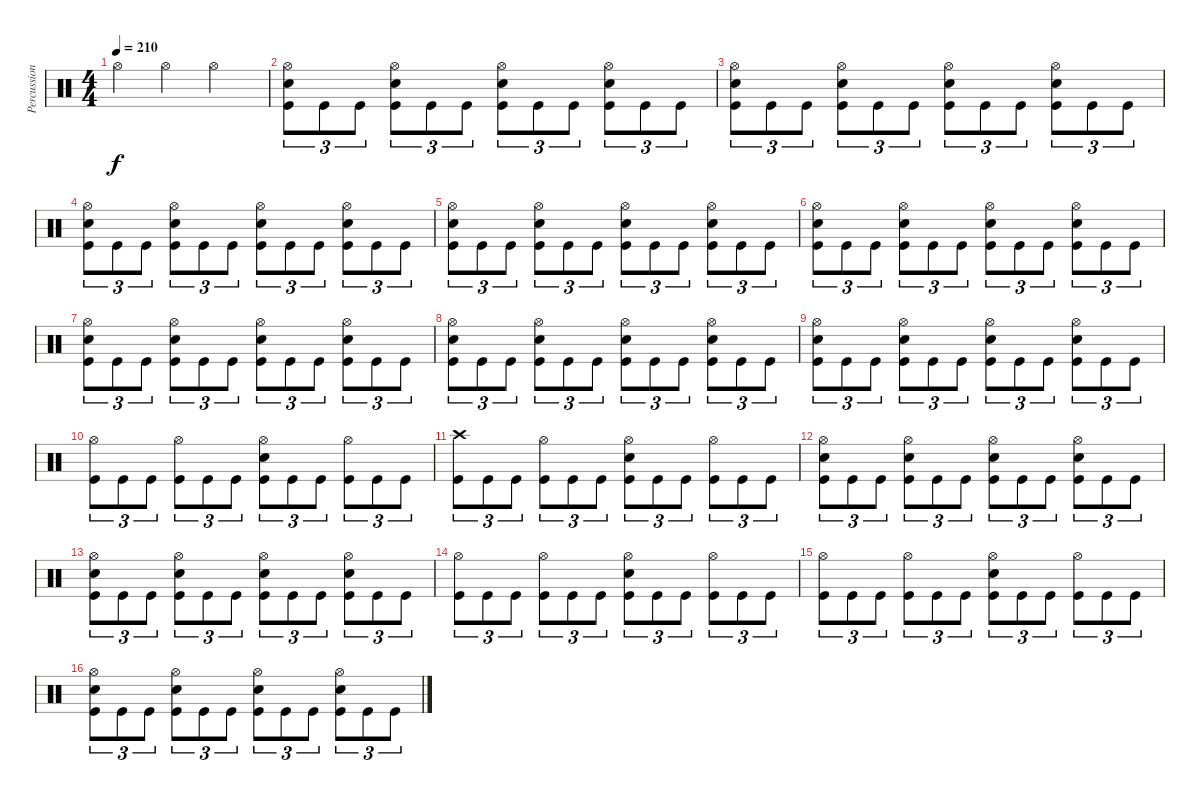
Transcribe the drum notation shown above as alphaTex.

\track ("Percussion" "Percussion") {instrument percussion}
\staff {score}
\articulation defaults
\ts (4 4)
\tempo 210
\clef neutral
\ks c "Hi-Hat (open)".4{dy f} "Hi-Hat (open)".4 "Hi-Hat (open)".2
|
("Snare (hit) 2" "Hi-Hat (open)" "Kick (hit)").8{tu (3 2)} "Kick (hit)".8{tu (3 2)} "Kick (hit)".8{tu (3 2)} ("Snare (hit) 2" "Hi-Hat (open)" "Kick (hit)").8{tu (3 2)} "Kick (hit)".8{tu (3 2)} "Kick (hit)".8{tu (3 2)} ("Snare (hit) 2" "Hi-Hat (open)" "Kick (hit)").8{tu (3 2)} "Kick (hit)".8{tu (3 2)} "Kick (hit)".8{tu (3 2)} ("Snare (hit) 2" "Hi-Hat (open)" "Kick (hit)").8{tu (3 2)} "Kick (hit)".8{tu (3 2)} "Kick (hit)".8{tu (3 2)} |
("Snare (hit) 2" "Hi-Hat (open)" "Kick (hit)").8{tu (3 2)} "Kick (hit)".8{tu (3 2)} "Kick (hit)".8{tu (3 2)} ("Snare (hit) 2" "Hi-Hat (open)" "Kick (hit)").8{tu (3 2)} "Kick (hit)".8{tu (3 2)} "Kick (hit)".8{tu (3 2)} ("Snare (hit) 2" "Hi-Hat (open)" "Kick (hit)").8{tu (3 2)} "Kick (hit)".8{tu (3 2)} "Kick (hit)".8{tu (3 2)} ("Snare (hit) 2" "Hi-Hat (open)" "Kick (hit)").8{tu (3 2)} "Kick (hit)".8{tu (3 2)} "Kick (hit)".8{tu (3 2)} |
("Snare (hit) 2" "Hi-Hat (open)" "Kick (hit)").8{tu (3 2)} "Kick (hit)".8{tu (3 2)} "Kick (hit)".8{tu (3 2)} ("Snare (hit) 2" "Hi-Hat (open)" "Kick (hit)").8{tu (3 2)} "Kick (hit)".8{tu (3 2)} "Kick (hit)".8{tu (3 2)} ("Snare (hit) 2" "Hi-Hat (open)" "Kick (hit)").8{tu (3 2)} "Kick (hit)".8{tu (3 2)} "Kick (hit)".8{tu (3 2)} ("Snare (hit) 2" "Hi-Hat (open)" "Kick (hit)").8{tu (3 2)} "Kick (hit)".8{tu (3 2)} "Kick (hit)".8{tu (3 2)} |
("Snare (hit) 2" "Hi-Hat (open)" "Kick (hit)").8{tu (3 2)} "Kick (hit)".8{tu (3 2)} "Kick (hit)".8{tu (3 2)} ("Snare (hit) 2" "Hi-Hat (open)" "Kick (hit)").8{tu (3 2)} "Kick (hit)".8{tu (3 2)} "Kick (hit)".8{tu (3 2)} ("Snare (hit) 2" "Hi-Hat (open)" "Kick (hit)").8{tu (3 2)} "Kick (hit)".8{tu (3 2)} "Kick (hit)".8{tu (3 2)} ("Snare (hit) 2" "Hi-Hat (open)" "Kick (hit)").8{tu (3 2)} "Kick (hit)".8{tu (3 2)} "Kick (hit)".8{tu (3 2)} |
("Snare (hit) 2" "Hi-Hat (open)" "Kick (hit)").8{tu (3 2)} "Kick (hit)".8{tu (3 2)} "Kick (hit)".8{tu (3 2)} ("Snare (hit) 2" "Hi-Hat (open)" "Kick (hit)").8{tu (3 2)} "Kick (hit)".8{tu (3 2)} "Kick (hit)".8{tu (3 2)} ("Snare (hit) 2" "Hi-Hat (open)" "Kick (hit)").8{tu (3 2)} "Kick (hit)".8{tu (3 2)} "Kick (hit)".8{tu (3 2)} ("Snare (hit) 2" "Hi-Hat (open)" "Kick (hit)").8{tu (3 2)} "Kick (hit)".8{tu (3 2)} "Kick (hit)".8{tu (3 2)} |
("Snare (hit) 2" "Hi-Hat (open)" "Kick (hit)").8{tu (3 2)} "Kick (hit)".8{tu (3 2)} "Kick (hit)".8{tu (3 2)} ("Snare (hit) 2" "Hi-Hat (open)" "Kick (hit)").8{tu (3 2)} "Kick (hit)".8{tu (3 2)} "Kick (hit)".8{tu (3 2)} ("Snare (hit) 2" "Hi-Hat (open)" "Kick (hit)").8{tu (3 2)} "Kick (hit)".8{tu (3 2)} "Kick (hit)".8{tu (3 2)} ("Snare (hit) 2" "Hi-Hat (open)" "Kick (hit)").8{tu (3 2)} "Kick (hit)".8{tu (3 2)} "Kick (hit)".8{tu (3 2)} |
("Snare (hit) 2" "Hi-Hat (open)" "Kick (hit)").8{tu (3 2)} "Kick (hit)".8{tu (3 2)} "Kick (hit)".8{tu (3 2)} ("Snare (hit) 2" "Hi-Hat (open)" "Kick (hit)").8{tu (3 2)} "Kick (hit)".8{tu (3 2)} "Kick (hit)".8{tu (3 2)} ("Snare (hit) 2" "Hi-Hat (open)" "Kick (hit)").8{tu (3 2)} "Kick (hit)".8{tu (3 2)} "Kick (hit)".8{tu (3 2)} ("Snare (hit) 2" "Hi-Hat (open)" "Kick (hit)").8{tu (3 2)} "Kick (hit)".8{tu (3 2)} "Kick (hit)".8{tu (3 2)} |
("Snare (hit) 2" "Hi-Hat (open)" "Kick (hit)").8{tu (3 2)} "Kick (hit)".8{tu (3 2)} "Kick (hit)".8{tu (3 2)} ("Snare (hit) 2" "Hi-Hat (open)" "Kick (hit)").8{tu (3 2)} "Kick (hit)".8{tu (3 2)} "Kick (hit)".8{tu (3 2)} ("Snare (hit) 2" "Hi-Hat (open)" "Kick (hit)").8{tu (3 2)} "Kick (hit)".8{tu (3 2)} "Kick (hit)".8{tu (3 2)} ("Snare (hit) 2" "Hi-Hat (open)" "Kick (hit)").8{tu (3 2)} "Kick (hit)".8{tu (3 2)} "Kick (hit)".8{tu (3 2)} |
("Hi-Hat (open)" "Kick (hit)").8{tu (3 2)} "Kick (hit)".8{tu (3 2)} "Kick (hit)".8{tu (3 2)} ("Hi-Hat (open)" "Kick (hit)").8{tu (3 2)} "Kick (hit)".8{tu (3 2)} "Kick (hit)".8{tu (3 2)} ("Snare (hit) 2" "Hi-Hat (open)" "Kick (hit)").8{tu (3 2)} "Kick (hit)".8{tu (3 2)} "Kick (hit)".8{tu (3 2)} ("Hi-Hat (open)" "Kick (hit)").8{tu (3 2)} "Kick (hit)".8{tu (3 2)} "Kick (hit)".8{tu (3 2)} |
("Crash high (hit)" "Kick (hit)").8{tu (3 2)} "Kick (hit)".8{tu (3 2)} "Kick (hit)".8{tu (3 2)} ("Hi-Hat (open)" "Kick (hit)").8{tu (3 2)} "Kick (hit)".8{tu (3 2)} "Kick (hit)".8{tu (3 2)} ("Snare (hit) 2" "Hi-Hat (open)" "Kick (hit)").8{tu (3 2)} "Kick (hit)".8{tu (3 2)} "Kick (hit)".8{tu (3 2)} ("Hi-Hat (open)" "Kick (hit)").8{tu (3 2)} "Kick (hit)".8{tu (3 2)} "Kick (hit)".8{tu (3 2)} |
("Snare (hit) 2" "Hi-Hat (open)" "Kick (hit)").8{tu (3 2)} "Kick (hit)".8{tu (3 2)} "Kick (hit)".8{tu (3 2)} ("Snare (hit) 2" "Hi-Hat (open)" "Kick (hit)").8{tu (3 2)} "Kick (hit)".8{tu (3 2)} "Kick (hit)".8{tu (3 2)} ("Snare (hit) 2" "Hi-Hat (open)" "Kick (hit)").8{tu (3 2)} "Kick (hit)".8{tu (3 2)} "Kick (hit)".8{tu (3 2)} ("Snare (hit) 2" "Hi-Hat (open)" "Kick (hit)").8{tu (3 2)} "Kick (hit)".8{tu (3 2)} "Kick (hit)".8{tu (3 2)} |
("Snare (hit) 2" "Hi-Hat (open)" "Kick (hit)").8{tu (3 2)} "Kick (hit)".8{tu (3 2)} "Kick (hit)".8{tu (3 2)} ("Snare (hit) 2" "Hi-Hat (open)" "Kick (hit)").8{tu (3 2)} "Kick (hit)".8{tu (3 2)} "Kick (hit)".8{tu (3 2)} ("Snare (hit) 2" "Hi-Hat (open)" "Kick (hit)").8{tu (3 2)} "Kick (hit)".8{tu (3 2)} "Kick (hit)".8{tu (3 2)} ("Snare (hit) 2" "Hi-Hat (open)" "Kick (hit)").8{tu (3 2)} "Kick (hit)".8{tu (3 2)} "Kick (hit)".8{tu (3 2)} |
("Hi-Hat (open)" "Kick (hit)").8{tu (3 2)} "Kick (hit)".8{tu (3 2)} "Kick (hit)".8{tu (3 2)} ("Hi-Hat (open)" "Kick (hit)").8{tu (3 2)} "Kick (hit)".8{tu (3 2)} "Kick (hit)".8{tu (3 2)} ("Snare (hit) 2" "Hi-Hat (open)" "Kick (hit)").8{tu (3 2)} "Kick (hit)".8{tu (3 2)} "Kick (hit)".8{tu (3 2)} ("Hi-Hat (open)" "Kick (hit)").8{tu (3 2)} "Kick (hit)".8{tu (3 2)} "Kick (hit)".8{tu (3 2)} |
("Hi-Hat (open)" "Kick (hit)").8{tu (3 2)} "Kick (hit)".8{tu (3 2)} "Kick (hit)".8{tu (3 2)} ("Hi-Hat (open)" "Kick (hit)").8{tu (3 2)} "Kick (hit)".8{tu (3 2)} "Kick (hit)".8{tu (3 2)} ("Snare (hit) 2" "Hi-Hat (open)" "Kick (hit)").8{tu (3 2)} "Kick (hit)".8{tu (3 2)} "Kick (hit)".8{tu (3 2)} ("Hi-Hat (open)" "Kick (hit)").8{tu (3 2)} "Kick (hit)".8{tu (3 2)} "Kick (hit)".8{tu (3 2)} |
("Snare (hit) 2" "Hi-Hat (open)" "Kick (hit)").8{tu (3 2)} "Kick (hit)".8{tu (3 2)} "Kick (hit)".8{tu (3 2)} ("Snare (hit) 2" "Hi-Hat (open)" "Kick (hit)").8{tu (3 2)} "Kick (hit)".8{tu (3 2)} "Kick (hit)".8{tu (3 2)} ("Snare (hit) 2" "Hi-Hat (open)" "Kick (hit)").8{tu (3 2)} "Kick (hit)".8{tu (3 2)} "Kick (hit)".8{tu (3 2)} ("Snare (hit) 2" "Hi-Hat (open)" "Kick (hit)").8{tu (3 2)} "Kick (hit)".8{tu (3 2)} "Kick (hit)".8{tu (3 2)}
